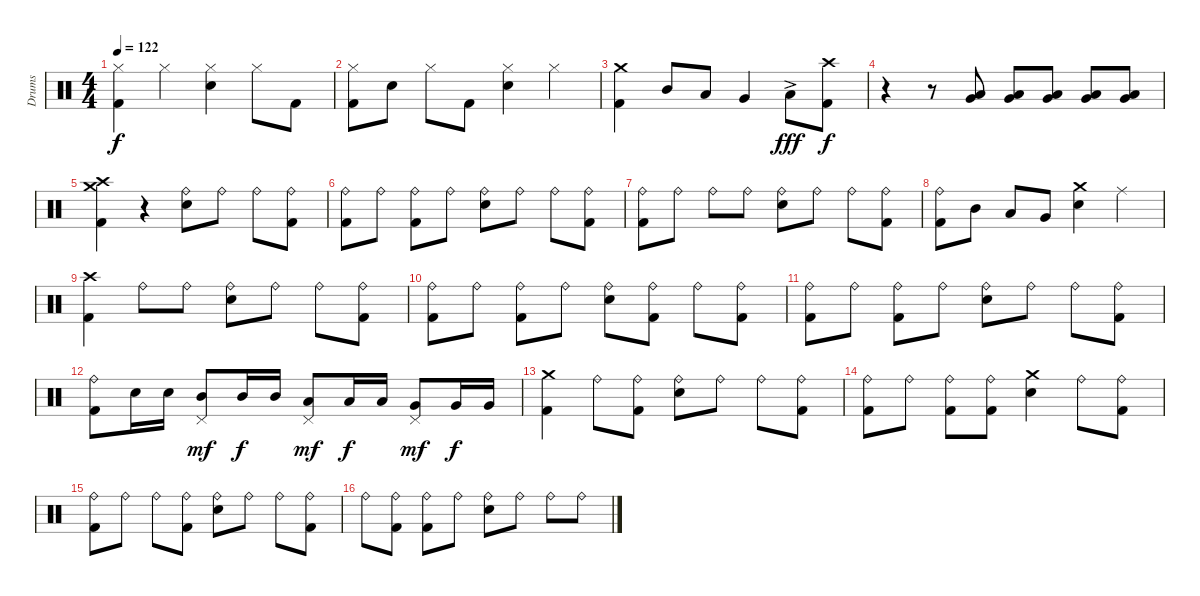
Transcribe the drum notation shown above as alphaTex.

\track ("Drums" "Drums") {instrument percussion}
\staff {score}
\articulation defaults
\ts (4 4)
\tempo 122
\clef neutral
\ks c
("Hi-Hat (closed)" "Kick (hit) 2").4{dy f} "Hi-Hat (closed)".4 ("Hi-Hat (closed)" "Snare (hit) 2").4 "Hi-Hat (closed)".8 "Kick (hit) 2".8 |
("Hi-Hat (closed)" "Kick (hit) 2").8 "Snare (hit) 2".8 "Hi-Hat (closed)".8 "Kick (hit) 2".8 ("Hi-Hat (closed)" "Snare (hit) 2").4 "Hi-Hat (closed)".4 |
("Crash medium (hit)" "Kick (hit) 2").4 "Mid Tom (hit)".8 "Low Tom (hit)".8 "Very Low Tom (hit)".4 "Low Floor Tom (hit)"{ac}.8{dy fff} ("Crash high (hit)" "Kick (hit) 2").8{dy f} |
r.4 r.8 ("Low Tom (hit)" "Very Low Tom (hit)").8 ("Low Tom (hit)" "Very Low Tom (hit)").8 ("Low Tom (hit)" "Very Low Tom (hit)").8 ("Low Tom (hit)" "Very Low Tom (hit)").8 ("Low Tom (hit)" "Very Low Tom (hit)").8 |
("Crash high (hit)" "Crash medium (hit)" "Kick (hit) 2").4 r.4 ("Ride (bell)" "Snare (hit) 2").8 "Ride (bell)".8 "Ride (bell)".8 ("Ride (bell)" "Kick (hit) 2").8 |
("Ride (bell)" "Kick (hit) 2").8 "Ride (bell)".8 ("Ride (bell)" "Kick (hit) 2").8 "Ride (bell)".8 ("Ride (bell)" "Snare (hit) 2").8 "Ride (bell)".8 "Ride (bell)".8 ("Ride (bell)" "Kick (hit) 2").8 |
("Ride (bell)" "Kick (hit) 2").8 "Ride (bell)".8 "Ride (bell)".8 "Ride (bell)".8 ("Ride (bell)" "Snare (hit) 2").8 "Ride (bell)".8 "Ride (bell)".8 ("Ride (bell)" "Kick (hit) 2").8 |
("Ride (bell)" "Kick (hit) 2").8 "Mid Tom (hit)".8 "Low Tom (hit)".8 "Very Low Tom (hit)".8 ("Crash medium (hit)" "Snare (hit) 2").4 "Ride (middle)".4 |
("Crash high (hit)" "Kick (hit) 2").4 "Ride (bell)".8 "Ride (bell)".8 ("Ride (bell)" "Snare (hit) 2").8 "Ride (bell)".8 "Ride (bell)".8 ("Ride (bell)" "Kick (hit) 2").8 |
("Ride (bell)" "Kick (hit) 2").8 "Ride (bell)".8 ("Ride (bell)" "Kick (hit) 2").8 "Ride (bell)".8 ("Ride (bell)" "Snare (hit) 2").8 ("Ride (bell)" "Kick (hit) 2").8 "Ride (bell)".8 ("Ride (bell)" "Kick (hit) 2").8 |
("Ride (bell)" "Kick (hit) 2").8 "Ride (bell)".8 ("Ride (bell)" "Kick (hit) 2").8 "Ride (bell)".8 ("Ride (bell)" "Snare (hit) 2").8 "Ride (bell)".8 "Ride (bell)".8 ("Ride (bell)" "Kick (hit) 2").8 |
("Ride (bell)" "Kick (hit) 2").8 "Snare (hit) 2".16 "Snare (hit) 2".16 ("Pedal Hi-Hat (hit)" "Mid Tom (hit)").8{dy mf} "Mid Tom (hit)".16{dy f} "Mid Tom (hit)".16 ("Pedal Hi-Hat (hit)" "Low Tom (hit)").8{dy mf} "Low Tom (hit)".16{dy f} "Low Tom (hit)".16 ("Pedal Hi-Hat (hit)" "Very Low Tom (hit)").8{dy mf} "Very Low Tom (hit)".16{dy f} "Very Low Tom (hit)".16 |
("Crash medium (hit)" "Kick (hit) 2").4 "Ride (bell)".8 ("Ride (bell)" "Kick (hit) 2").8 ("Ride (bell)" "Snare (hit) 2").8 "Ride (bell)".8 "Ride (bell)".8 ("Ride (bell)" "Kick (hit) 2").8 |
("Ride (bell)" "Kick (hit) 2").8 "Ride (bell)".8 ("Ride (bell)" "Kick (hit) 2").8 ("Ride (bell)" "Kick (hit) 2").8 ("Crash medium (hit)" "Snare (hit) 2").4 "Ride (bell)".8 ("Ride (bell)" "Kick (hit) 2").8 |
("Ride (bell)" "Kick (hit) 2").8 "Ride (bell)".8 "Ride (bell)".8 ("Ride (bell)" "Kick (hit) 2").8 ("Ride (bell)" "Snare (hit) 2").8 "Ride (bell)".8 "Ride (bell)".8 ("Ride (bell)" "Kick (hit) 2").8 |
"Ride (bell)".8 ("Ride (bell)" "Kick (hit) 2").8 ("Ride (bell)" "Kick (hit) 2").8 "Ride (bell)".8 ("Ride (bell)" "Snare (hit) 2").8 "Ride (bell)".8 "Ride (bell)".8 "Ride (bell)".8
